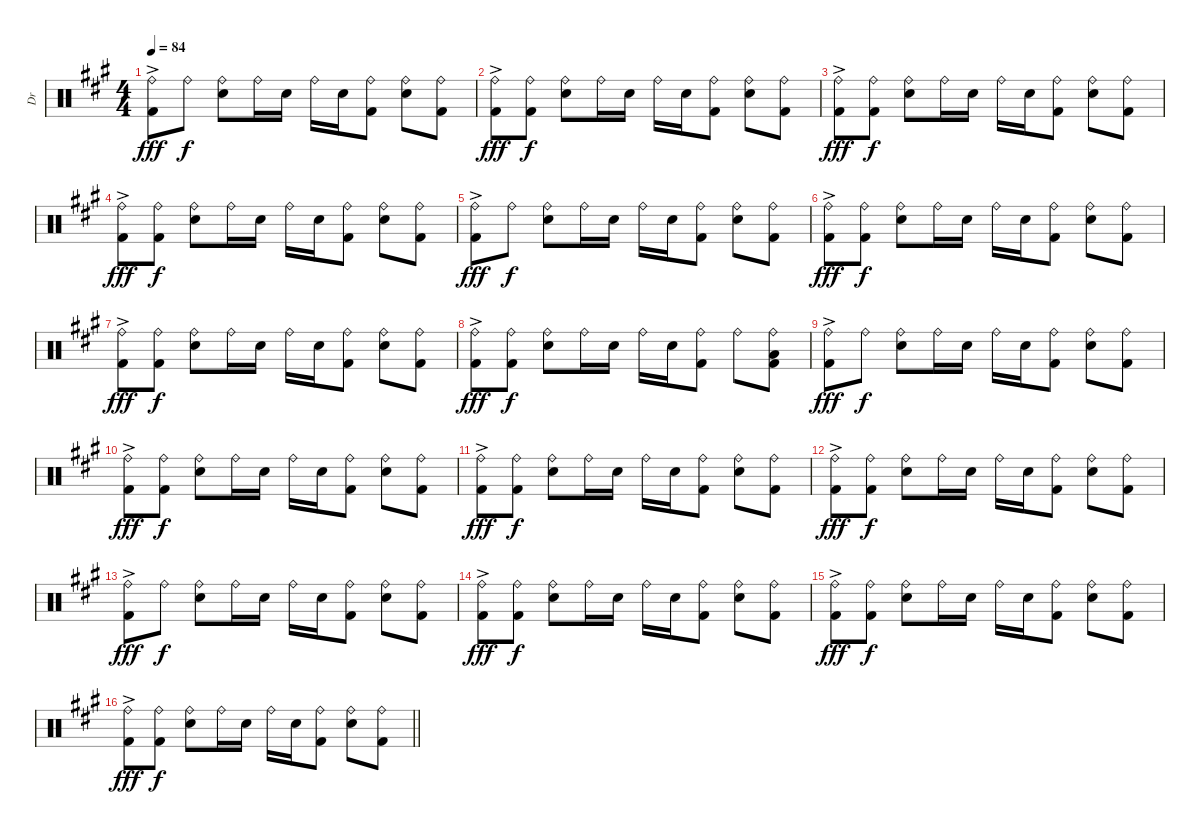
\track ("Dr" "Dr") {instrument percussion}
\staff {score}
\articulation defaults
\ts (4 4)
\tempo 84
\clef neutral
\ks a
("Ride (bell)"{ac} "Kick (hit) 2"{ac}).8{dy fff} "Ride (bell)".8{dy f} ("Ride (bell)" "Electric Snare (hit)").8 "Ride (bell)".16 "Electric Snare (hit)".16 "Ride (bell)".16 "Electric Snare (hit)".16 ("Ride (bell)" "Kick (hit) 2").8 ("Ride (bell)" "Electric Snare (hit)").8 ("Ride (bell)" "Kick (hit) 2").8 |
("Ride (bell)"{ac} "Kick (hit) 2"{ac}).8{dy fff} ("Ride (bell)" "Kick (hit) 2").8{dy f} ("Ride (bell)" "Electric Snare (hit)").8 "Ride (bell)".16 "Electric Snare (hit)".16 "Ride (bell)".16 "Electric Snare (hit)".16 ("Ride (bell)" "Kick (hit) 2").8 ("Ride (bell)" "Electric Snare (hit)").8 ("Ride (bell)" "Kick (hit) 2").8 |
("Ride (bell)"{ac} "Kick (hit) 2"{ac}).8{dy fff} ("Ride (bell)" "Kick (hit) 2").8{dy f} ("Ride (bell)" "Electric Snare (hit)").8 "Ride (bell)".16 "Electric Snare (hit)".16 "Ride (bell)".16 "Electric Snare (hit)".16 ("Ride (bell)" "Kick (hit) 2").8 ("Ride (bell)" "Electric Snare (hit)").8 ("Ride (bell)" "Kick (hit) 2").8 |
("Ride (bell)"{ac} "Kick (hit) 2"{ac}).8{dy fff} ("Ride (bell)" "Kick (hit) 2").8{dy f} ("Ride (bell)" "Electric Snare (hit)").8 "Ride (bell)".16 "Electric Snare (hit)".16 "Ride (bell)".16 "Electric Snare (hit)".16 ("Ride (bell)" "Kick (hit) 2").8 ("Ride (bell)" "Electric Snare (hit)").8 ("Ride (bell)" "Kick (hit) 2").8 |
("Ride (bell)"{ac} "Kick (hit) 2"{ac}).8{dy fff} "Ride (bell)".8{dy f} ("Ride (bell)" "Electric Snare (hit)").8 "Ride (bell)".16 "Electric Snare (hit)".16 "Ride (bell)".16 "Electric Snare (hit)".16 ("Ride (bell)" "Kick (hit) 2").8 ("Ride (bell)" "Electric Snare (hit)").8 ("Ride (bell)" "Kick (hit) 2").8 |
("Ride (bell)"{ac} "Kick (hit) 2"{ac}).8{dy fff} ("Ride (bell)" "Kick (hit) 2").8{dy f} ("Ride (bell)" "Electric Snare (hit)").8 "Ride (bell)".16 "Electric Snare (hit)".16 "Ride (bell)".16 "Electric Snare (hit)".16 ("Ride (bell)" "Kick (hit) 2").8 ("Ride (bell)" "Electric Snare (hit)").8 ("Ride (bell)" "Kick (hit) 2").8 |
("Ride (bell)"{ac} "Kick (hit) 2"{ac}).8{dy fff} ("Ride (bell)" "Kick (hit) 2").8{dy f} ("Ride (bell)" "Electric Snare (hit)").8 "Ride (bell)".16 "Electric Snare (hit)".16 "Ride (bell)".16 "Electric Snare (hit)".16 ("Ride (bell)" "Kick (hit) 2").8 ("Ride (bell)" "Electric Snare (hit)").8 ("Ride (bell)" "Kick (hit) 2").8 |
("Ride (bell)"{ac} "Kick (hit) 2"{ac}).8{dy fff} ("Ride (bell)" "Kick (hit) 2").8{dy f} ("Ride (bell)" "Electric Snare (hit)").8 "Ride (bell)".16 "Electric Snare (hit)".16 "Ride (bell)".16 "Electric Snare (hit)".16 ("Ride (bell)" "Kick (hit) 2").8 "Ride (bell)".8 ("Ride (bell)" "Low Tom (hit)" "Kick (hit) 2").8 |
("Ride (bell)"{ac} "Kick (hit) 2"{ac}).8{dy fff} "Ride (bell)".8{dy f} ("Ride (bell)" "Electric Snare (hit)").8 "Ride (bell)".16 "Electric Snare (hit)".16 "Ride (bell)".16 "Electric Snare (hit)".16 ("Ride (bell)" "Kick (hit) 2").8 ("Ride (bell)" "Electric Snare (hit)").8 ("Ride (bell)" "Kick (hit) 2").8 |
("Ride (bell)"{ac} "Kick (hit) 2"{ac}).8{dy fff} ("Ride (bell)" "Kick (hit) 2").8{dy f} ("Ride (bell)" "Electric Snare (hit)").8 "Ride (bell)".16 "Electric Snare (hit)".16 "Ride (bell)".16 "Electric Snare (hit)".16 ("Ride (bell)" "Kick (hit) 2").8 ("Ride (bell)" "Electric Snare (hit)").8 ("Ride (bell)" "Kick (hit) 2").8 |
("Ride (bell)"{ac} "Kick (hit) 2"{ac}).8{dy fff} ("Ride (bell)" "Kick (hit) 2").8{dy f} ("Ride (bell)" "Electric Snare (hit)").8 "Ride (bell)".16 "Electric Snare (hit)".16 "Ride (bell)".16 "Electric Snare (hit)".16 ("Ride (bell)" "Kick (hit) 2").8 ("Ride (bell)" "Electric Snare (hit)").8 ("Ride (bell)" "Kick (hit) 2").8 |
("Ride (bell)"{ac} "Kick (hit) 2"{ac}).8{dy fff} ("Ride (bell)" "Kick (hit) 2").8{dy f} ("Ride (bell)" "Electric Snare (hit)").8 "Ride (bell)".16 "Electric Snare (hit)".16 "Ride (bell)".16 "Electric Snare (hit)".16 ("Ride (bell)" "Kick (hit) 2").8 ("Ride (bell)" "Electric Snare (hit)").8 ("Ride (bell)" "Kick (hit) 2").8 |
("Ride (bell)"{ac} "Kick (hit) 2"{ac}).8{dy fff} "Ride (bell)".8{dy f} ("Ride (bell)" "Electric Snare (hit)").8 "Ride (bell)".16 "Electric Snare (hit)".16 "Ride (bell)".16 "Electric Snare (hit)".16 ("Ride (bell)" "Kick (hit) 2").8 ("Ride (bell)" "Electric Snare (hit)").8 ("Ride (bell)" "Kick (hit) 2").8 |
("Ride (bell)"{ac} "Kick (hit) 2"{ac}).8{dy fff} ("Ride (bell)" "Kick (hit) 2").8{dy f} ("Ride (bell)" "Electric Snare (hit)").8 "Ride (bell)".16 "Electric Snare (hit)".16 "Ride (bell)".16 "Electric Snare (hit)".16 ("Ride (bell)" "Kick (hit) 2").8 ("Ride (bell)" "Electric Snare (hit)").8 ("Ride (bell)" "Kick (hit) 2").8 |
("Ride (bell)"{ac} "Kick (hit) 2"{ac}).8{dy fff} ("Ride (bell)" "Kick (hit) 2").8{dy f} ("Ride (bell)" "Electric Snare (hit)").8 "Ride (bell)".16 "Electric Snare (hit)".16 "Ride (bell)".16 "Electric Snare (hit)".16 ("Ride (bell)" "Kick (hit) 2").8 ("Ride (bell)" "Electric Snare (hit)").8 ("Ride (bell)" "Kick (hit) 2").8 |
\barLineRight lightlight
("Ride (bell)"{ac} "Kick (hit) 2"{ac}).8{dy fff} ("Ride (bell)" "Kick (hit) 2").8{dy f} ("Ride (bell)" "Electric Snare (hit)").8 "Ride (bell)".16 "Electric Snare (hit)".16 "Ride (bell)".16 "Electric Snare (hit)".16 ("Ride (bell)" "Kick (hit) 2").8 ("Ride (bell)" "Electric Snare (hit)").8 ("Ride (bell)" "Kick (hit) 2").8
